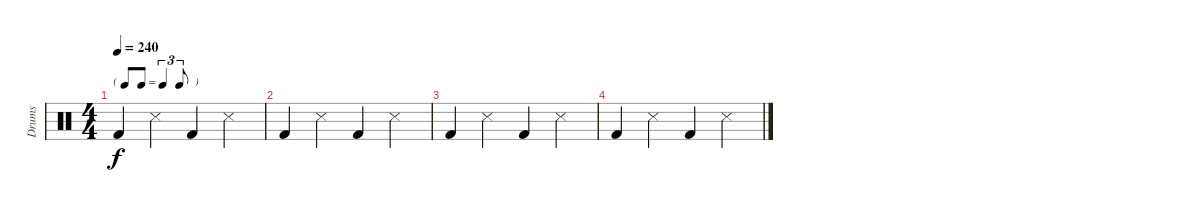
\track ("Drums" "Drums") {instrument percussion}
\staff {score}
\articulation defaults
\ts (4 4)
\tf triplet8th
\tempo 240
\clef neutral
\ks c "Kick (hit) 2".4{dy f} "Snare (side stick) 3".4 "Kick (hit) 2".4 "Snare (side stick) 3".4
|
"Kick (hit) 2".4 "Snare (side stick) 3".4 "Kick (hit) 2".4 "Snare (side stick) 3".4 |
"Kick (hit) 2".4 "Snare (side stick) 3".4 "Kick (hit) 2".4 "Snare (side stick) 3".4 |
"Kick (hit) 2".4 "Snare (side stick) 3".4 "Kick (hit) 2".4 "Snare (side stick) 3".4
